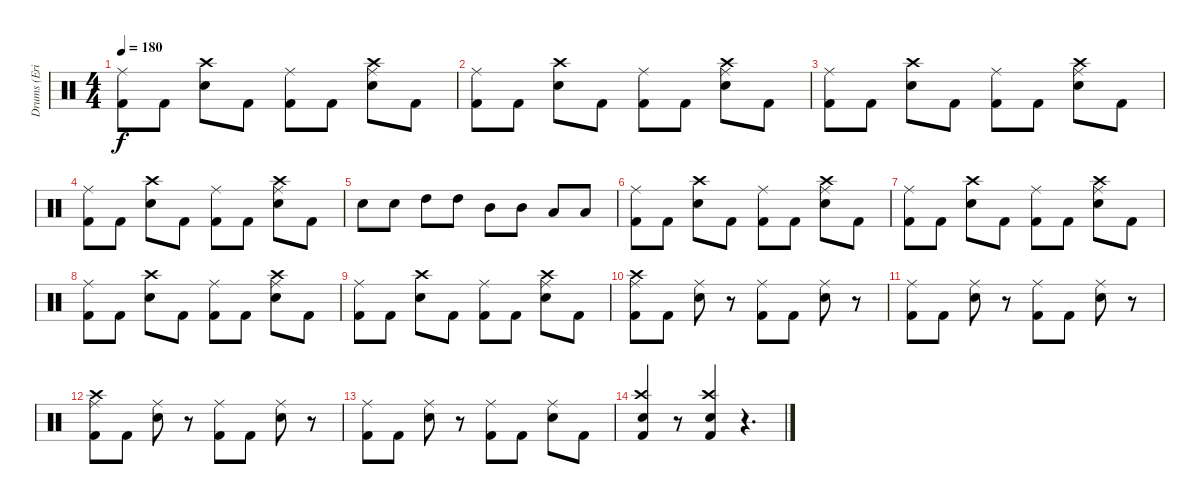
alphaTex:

\track ("Drums (Eric Young)" "Drums (Eri") {instrument percussion}
\staff {score}
\articulation defaults
\ts (4 4)
\tempo 180
\clef neutral
\ks c
("Ride (middle)" "Kick (hit) 2").8{dy f} "Kick (hit) 2".8 ("Crash high (hit)" "Snare (hit) 2").8 "Kick (hit) 2".8 ("Ride (middle)" "Kick (hit) 2").8 "Kick (hit) 2".8 ("Crash high (hit)" "Ride (middle)" "Snare (hit) 2").8 "Kick (hit) 2".8 |
("Ride (middle)" "Kick (hit) 2").8 "Kick (hit) 2".8 ("Crash high (hit)" "Snare (hit) 2").8 "Kick (hit) 2".8 ("Ride (middle)" "Kick (hit) 2").8 "Kick (hit) 2".8 ("Crash high (hit)" "Ride (middle)" "Snare (hit) 2").8 "Kick (hit) 2".8 |
("Ride (middle)" "Kick (hit) 2").8 "Kick (hit) 2".8 ("Crash high (hit)" "Snare (hit) 2").8 "Kick (hit) 2".8 ("Ride (middle)" "Kick (hit) 2").8 "Kick (hit) 2".8 ("Crash high (hit)" "Ride (middle)" "Snare (hit) 2").8 "Kick (hit) 2".8 |
("Ride (middle)" "Kick (hit) 2").8 "Kick (hit) 2".8 ("Crash high (hit)" "Snare (hit) 2").8 "Kick (hit) 2".8 ("Ride (middle)" "Kick (hit) 2").8 "Kick (hit) 2".8 ("Crash high (hit)" "Ride (middle)" "Snare (hit) 2").8 "Kick (hit) 2".8 |
"Snare (hit) 2".8 "Snare (hit) 2".8 "High Tom (hit)".8 "High Tom (hit)".8 "Mid Tom (hit)".8 "Mid Tom (hit)".8 "Low Tom (hit)".8 "Low Tom (hit)".8 |
("Ride (middle)" "Kick (hit) 2").8 "Kick (hit) 2".8 ("Crash high (hit)" "Snare (hit) 2").8 "Kick (hit) 2".8 ("Ride (middle)" "Kick (hit) 2").8 "Kick (hit) 2".8 ("Crash high (hit)" "Ride (middle)" "Snare (hit) 2").8 "Kick (hit) 2".8 |
("Ride (middle)" "Kick (hit) 2").8 "Kick (hit) 2".8 ("Crash high (hit)" "Snare (hit) 2").8 "Kick (hit) 2".8 ("Ride (middle)" "Kick (hit) 2").8 "Kick (hit) 2".8 ("Crash high (hit)" "Ride (middle)" "Snare (hit) 2").8 "Kick (hit) 2".8 |
("Ride (middle)" "Kick (hit) 2").8 "Kick (hit) 2".8 ("Crash high (hit)" "Snare (hit) 2").8 "Kick (hit) 2".8 ("Ride (middle)" "Kick (hit) 2").8 "Kick (hit) 2".8 ("Crash high (hit)" "Ride (middle)" "Snare (hit) 2").8 "Kick (hit) 2".8 |
("Ride (middle)" "Kick (hit) 2").8 "Kick (hit) 2".8 ("Crash high (hit)" "Snare (hit) 2").8 "Kick (hit) 2".8 ("Ride (middle)" "Kick (hit) 2").8 "Kick (hit) 2".8 ("Crash high (hit)" "Ride (middle)" "Snare (hit) 2").8 "Kick (hit) 2".8 |
("Crash high (hit)" "Ride (middle)" "Kick (hit) 2").8 "Kick (hit) 2".8 ("Ride (middle)" "Snare (hit) 2").8 r.8 ("Ride (middle)" "Kick (hit) 2").8 "Kick (hit) 2".8 ("Ride (middle)" "Snare (hit) 2").8 r.8 |
("Ride (middle)" "Kick (hit) 2").8 "Kick (hit) 2".8 ("Ride (middle)" "Snare (hit) 2").8 r.8 ("Ride (middle)" "Kick (hit) 2").8 "Kick (hit) 2".8 ("Ride (middle)" "Snare (hit) 2").8 r.8 |
("Crash high (hit)" "Ride (middle)" "Kick (hit) 2").8 "Kick (hit) 2".8 ("Ride (middle)" "Snare (hit) 2").8 r.8 ("Ride (middle)" "Kick (hit) 2").8 "Kick (hit) 2".8 ("Ride (middle)" "Snare (hit) 2").8 r.8 |
("Ride (middle)" "Kick (hit) 2").8 "Kick (hit) 2".8 ("Ride (middle)" "Snare (hit) 2").8 r.8 ("Ride (middle)" "Kick (hit) 2").8 "Kick (hit) 2".8 ("Ride (middle)" "Snare (hit) 2").8 "Kick (hit) 2".8 |
("Crash high (hit)" "Snare (hit) 2" "Kick (hit) 2").4 r.8 ("Crash high (hit)" "Snare (hit) 2" "Kick (hit) 2").4 r.4{d}
